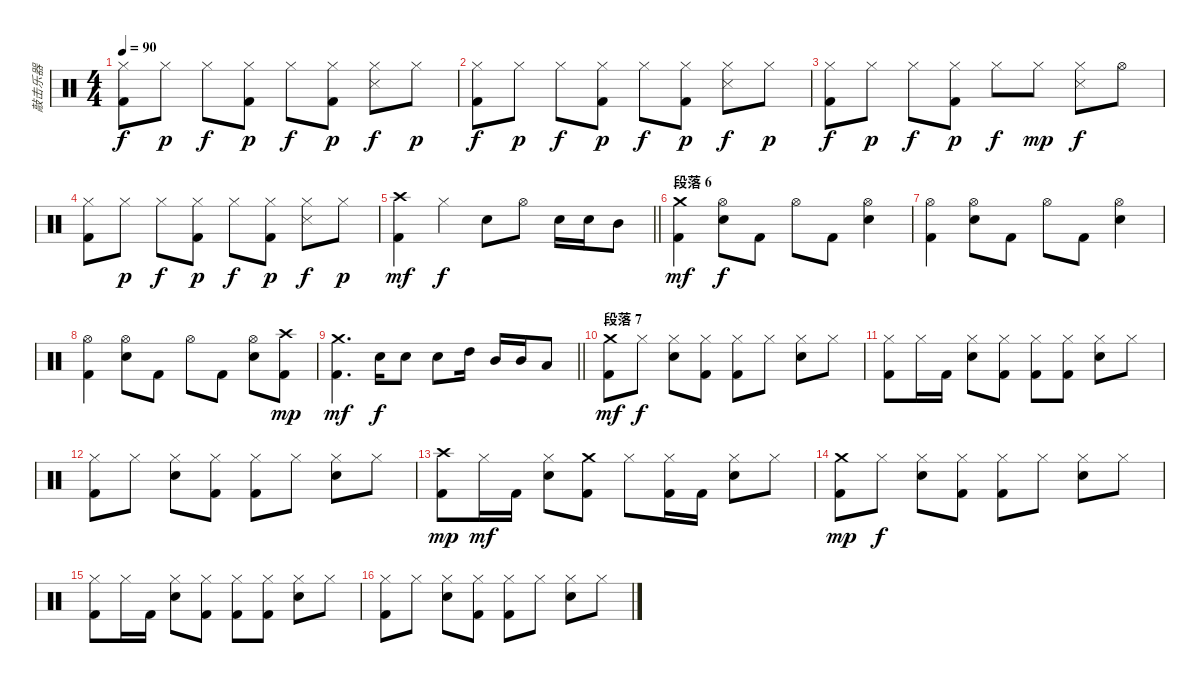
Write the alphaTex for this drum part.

\track ("敲击乐器" "敲击乐器") {instrument percussion}
\staff {score}
\articulation defaults
\ts (4 4)
\tempo 90
\clef neutral
\ks c
("Hi-Hat (closed)" "Kick (hit) 2").8{dy f} "Hi-Hat (closed)".8{dy p} "Hi-Hat (closed)".8{dy f} ("Hi-Hat (closed)" "Kick (hit) 2").8{dy p} "Hi-Hat (closed)".8{dy f} ("Hi-Hat (closed)" "Kick (hit) 2").8{dy p} ("Hi-Hat (closed)" "Metronome (hit)").8{dy f} "Hi-Hat (closed)".8{dy p} |
("Hi-Hat (closed)" "Kick (hit) 2").8{dy f} "Hi-Hat (closed)".8{dy p} "Hi-Hat (closed)".8{dy f} ("Hi-Hat (closed)" "Kick (hit) 2").8{dy p} "Hi-Hat (closed)".8{dy f} ("Hi-Hat (closed)" "Kick (hit) 2").8{dy p} ("Hi-Hat (closed)" "Metronome (hit)").8{dy f} "Hi-Hat (closed)".8{dy p} |
("Hi-Hat (closed)" "Kick (hit) 2").8{dy f} "Hi-Hat (closed)".8{dy p} "Hi-Hat (closed)".8{dy f} ("Hi-Hat (closed)" "Kick (hit) 2").8{dy p} "Hi-Hat (closed)".8{dy f} "Hi-Hat (closed)".8{dy mp} ("Hi-Hat (closed)" "Metronome (hit)").8{dy f} "Hi-Hat (open)".8 |
("Hi-Hat (closed)" "Kick (hit) 2").8 "Hi-Hat (closed)".8{dy p} "Hi-Hat (closed)".8{dy f} ("Hi-Hat (closed)" "Kick (hit) 2").8{dy p} "Hi-Hat (closed)".8{dy f} ("Hi-Hat (closed)" "Kick (hit) 2").8{dy p} ("Hi-Hat (closed)" "Metronome (hit)").8{dy f} "Hi-Hat (closed)".8{dy p} |
\barLineRight lightlight
("Crash high (hit)" "Kick (hit) 2").4{dy mf} "Hi-Hat (closed)".4{dy f} "Snare (hit) 2".8 "Hi-Hat (open)".8 "Snare (hit) 2".16 "Snare (hit) 2".16 "Mid Tom (hit)".8 |
\section ("" "段落 6")
("Crash medium (hit)" "Kick (hit) 2").4{dy mf} ("Hi-Hat (open)" "Snare (hit) 2").8{dy f} "Kick (hit) 2".8 "Hi-Hat (open)".8 "Kick (hit) 2".8 ("Hi-Hat (open)" "Snare (hit) 2").4 |
("Hi-Hat (open)" "Kick (hit) 2").4 ("Hi-Hat (open)" "Snare (hit) 2").8 "Kick (hit) 2".8 "Hi-Hat (open)".8 "Kick (hit) 2".8 ("Hi-Hat (open)" "Snare (hit) 2").4 |
("Hi-Hat (open)" "Kick (hit) 2").4 ("Hi-Hat (open)" "Snare (hit) 2").8 "Kick (hit) 2".8 "Hi-Hat (open)".8 "Kick (hit) 2".8 ("Hi-Hat (open)" "Snare (hit) 2").8 ("Crash high (hit)" "Kick (hit) 2").8{dy mp} |
\barLineRight lightlight
("Crash medium (hit)" "Kick (hit) 2").4{d dy mf} "Snare (hit) 2".16{dy f} "Snare (hit) 2".8 "Snare (hit) 2".8 "High Tom (hit)".16 "Mid Tom (hit)".16 "Mid Tom (hit)".16 "Low Floor Tom (hit)".8 |
\section ("" "段落 7")
("Crash medium (hit)" "Kick (hit) 2").8{dy mf} "Hi-Hat (closed)".8{dy f} ("Hi-Hat (closed)" "Snare (hit) 2").8 ("Hi-Hat (closed)" "Kick (hit) 2").8 ("Hi-Hat (closed)" "Kick (hit) 2").8 "Hi-Hat (closed)".8 ("Hi-Hat (closed)" "Snare (hit) 2").8 "Hi-Hat (closed)".8 |
("Hi-Hat (closed)" "Kick (hit) 2").8 "Hi-Hat (closed)".16 "Kick (hit) 2".16 ("Hi-Hat (closed)" "Snare (hit) 2").8 ("Hi-Hat (closed)" "Kick (hit) 2").8 ("Hi-Hat (closed)" "Kick (hit) 2").8 ("Hi-Hat (closed)" "Kick (hit) 2").8 ("Hi-Hat (closed)" "Snare (hit) 2").8 "Hi-Hat (closed)".8 |
("Hi-Hat (closed)" "Kick (hit) 2").8 "Hi-Hat (closed)".8 ("Hi-Hat (closed)" "Snare (hit) 2").8 ("Hi-Hat (closed)" "Kick (hit) 2").8 ("Hi-Hat (closed)" "Kick (hit) 2").8 "Hi-Hat (closed)".8 ("Hi-Hat (closed)" "Snare (hit) 2").8 "Hi-Hat (closed)".8 |
("Crash high (hit)" "Kick (hit) 2").8{dy mp} "Hi-Hat (closed)".16{dy mf} "Kick (hit) 2".16 ("Hi-Hat (closed)" "Snare (hit) 2").8 ("Crash medium (hit)" "Kick (hit) 2").8 "Hi-Hat (closed)".8 ("Hi-Hat (closed)" "Kick (hit) 2").16 "Kick (hit) 2".16 ("Hi-Hat (closed)" "Snare (hit) 2").8 "Hi-Hat (closed)".8 |
("Crash medium (hit)" "Kick (hit) 2").8{dy mp} "Hi-Hat (closed)".8{dy f} ("Hi-Hat (closed)" "Snare (hit) 2").8 ("Hi-Hat (closed)" "Kick (hit) 2").8 ("Hi-Hat (closed)" "Kick (hit) 2").8 "Hi-Hat (closed)".8 ("Hi-Hat (closed)" "Snare (hit) 2").8 "Hi-Hat (closed)".8 |
("Hi-Hat (closed)" "Kick (hit) 2").8 "Hi-Hat (closed)".16 "Kick (hit) 2".16 ("Hi-Hat (closed)" "Snare (hit) 2").8 ("Hi-Hat (closed)" "Kick (hit) 2").8 ("Hi-Hat (closed)" "Kick (hit) 2").8 ("Hi-Hat (closed)" "Kick (hit) 2").8 ("Hi-Hat (closed)" "Snare (hit) 2").8 "Hi-Hat (closed)".8 |
("Hi-Hat (closed)" "Kick (hit) 2").8 "Hi-Hat (closed)".8 ("Hi-Hat (closed)" "Snare (hit) 2").8 ("Hi-Hat (closed)" "Kick (hit) 2").8 ("Hi-Hat (closed)" "Kick (hit) 2").8 "Hi-Hat (closed)".8 ("Hi-Hat (closed)" "Snare (hit) 2").8 "Hi-Hat (closed)".8
